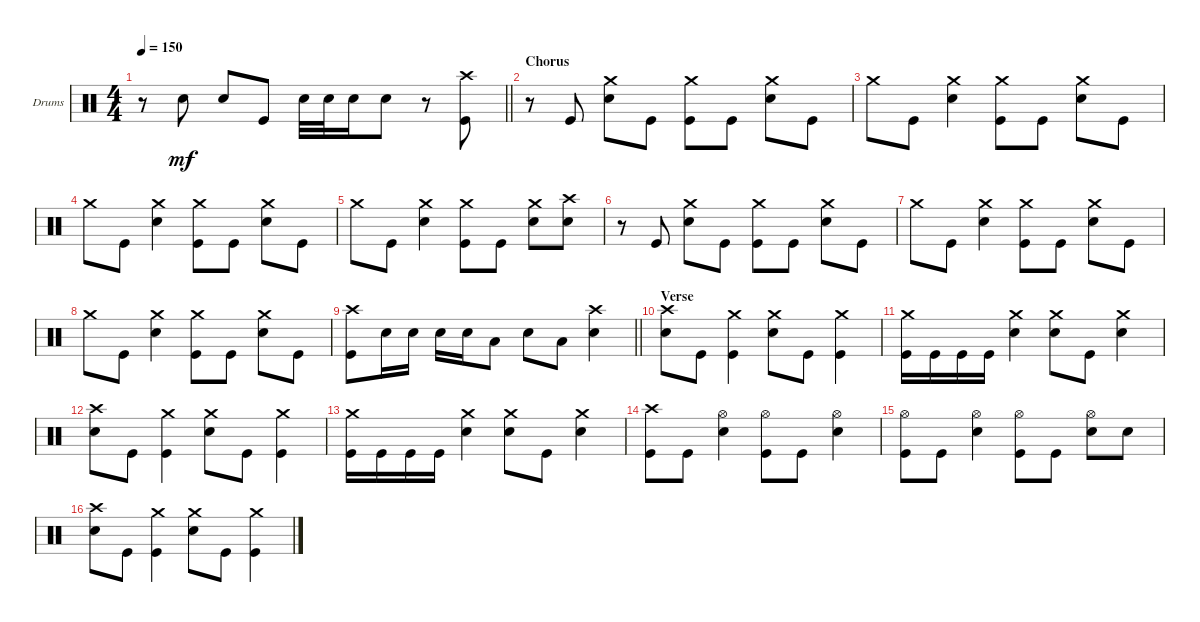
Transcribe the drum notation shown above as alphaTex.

\defaultSystemsLayout 4
\bracketExtendMode groupsimilarinstruments
\firstSystemTrackNameOrientation horizontal
\otherSystemsTrackNameOrientation horizontal
\track ("Drums" "Drums") {instrument percussion}
\staff {score}
\articulation defaults
\ts (4 4)
\tempo 150
\clef neutral
\barLineRight lightlight
\ks c
r.8{dy mf} "Snare (hit) 2".8 "Snare (hit) 2".8 "Kick (hit)".8 "Snare (hit) 2".32 "Snare (hit) 2".32 "Snare (hit) 2".16 "Snare (hit) 2".8 r.8 ("Kick (hit)" "Crash high (hit)").8 |
\section ("" "Chorus")
r.8 "Kick (hit)".8 ("Snare (hit) 2" "Crash medium (hit)").8 "Kick (hit)".8 ("Kick (hit)" "Crash medium (hit)").8 "Kick (hit)".8 ("Snare (hit) 2" "Crash medium (hit)").8 "Kick (hit)".8 |
"Crash medium (hit)".8 "Kick (hit)".8 ("Snare (hit) 2" "Crash medium (hit)").4 ("Kick (hit)" "Crash medium (hit)").8 "Kick (hit)".8 ("Snare (hit) 2" "Crash medium (hit)").8 "Kick (hit)".8 |
"Crash medium (hit)".8 "Kick (hit)".8 ("Snare (hit) 2" "Crash medium (hit)").4 ("Kick (hit)" "Crash medium (hit)").8 "Kick (hit)".8 ("Snare (hit) 2" "Crash medium (hit)").8 "Kick (hit)".8 |
"Crash medium (hit)".8 "Kick (hit)".8 ("Snare (hit) 2" "Crash medium (hit)").4 ("Kick (hit)" "Crash medium (hit)").8 "Kick (hit)".8 ("Snare (hit) 2" "Crash medium (hit)").8 ("Snare (hit) 2" "Crash high (hit)").8 |
r.8 "Kick (hit)".8 ("Snare (hit) 2" "Crash medium (hit)").8 "Kick (hit)".8 ("Kick (hit)" "Crash medium (hit)").8 "Kick (hit)".8 ("Snare (hit) 2" "Crash medium (hit)").8 "Kick (hit)".8 |
"Crash medium (hit)".8 "Kick (hit)".8 ("Snare (hit) 2" "Crash medium (hit)").4 ("Kick (hit)" "Crash medium (hit)").8 "Kick (hit)".8 ("Snare (hit) 2" "Crash medium (hit)").8 "Kick (hit)".8 |
"Crash medium (hit)".8 "Kick (hit)".8 ("Snare (hit) 2" "Crash medium (hit)").4 ("Kick (hit)" "Crash medium (hit)").8 "Kick (hit)".8 ("Snare (hit) 2" "Crash medium (hit)").8 "Kick (hit)".8 |
\barLineRight lightlight
("Crash high (hit)" "Kick (hit)").8 "Snare (hit) 2".16 "Snare (hit) 2".16 "Snare (hit) 2".16 "Snare (hit) 2".16 "Low Tom (hit)".8 "Snare (hit) 2".8 "Low Tom (hit)".8 ("Snare (hit) 2" "Crash high (hit)").4 |
\section ("" "Verse")
("Crash high (hit)" "Snare (hit) 2").8 "Kick (hit)".8 ("Crash medium (hit)" "Kick (hit)").4 ("Crash medium (hit)" "Snare (hit) 2").8 "Kick (hit)".8 ("Crash medium (hit)" "Kick (hit)").4 |
("Kick (hit)" "Crash medium (hit)").16 "Kick (hit)".16 "Kick (hit)".16 "Kick (hit)".16 ("Snare (hit) 2" "Crash medium (hit)").4 ("Crash medium (hit)" "Snare (hit) 2").8 "Kick (hit)".8 ("Snare (hit) 2" "Crash medium (hit)").4 |
("Crash high (hit)" "Snare (hit) 2").8 "Kick (hit)".8 ("Crash medium (hit)" "Kick (hit)").4 ("Crash medium (hit)" "Snare (hit) 2").8 "Kick (hit)".8 ("Crash medium (hit)" "Kick (hit)").4 |
("Kick (hit)" "Crash medium (hit)").16 "Kick (hit)".16 "Kick (hit)".16 "Kick (hit)".16 ("Snare (hit) 2" "Crash medium (hit)").4 ("Crash medium (hit)" "Snare (hit) 2").8 "Kick (hit)".8 ("Snare (hit) 2" "Crash medium (hit)").4 |
("Kick (hit)" "Crash high (hit)").8 "Kick (hit)".8 ("Snare (hit) 2" "Hi-Hat (open)").4 ("Kick (hit)" "Hi-Hat (open)").8 "Kick (hit)".8 ("Snare (hit) 2" "Hi-Hat (open)").4 |
("Kick (hit)" "Hi-Hat (open)").8 "Kick (hit)".8 ("Snare (hit) 2" "Hi-Hat (open)").4 ("Kick (hit)" "Hi-Hat (open)").8 "Kick (hit)".8 ("Snare (hit) 2" "Hi-Hat (open)").8 "Snare (hit) 2".8 |
("Crash high (hit)" "Snare (hit) 2").8 "Kick (hit)".8 ("Crash medium (hit)" "Kick (hit)").4 ("Crash medium (hit)" "Snare (hit) 2").8 "Kick (hit)".8 ("Crash medium (hit)" "Kick (hit)").4
